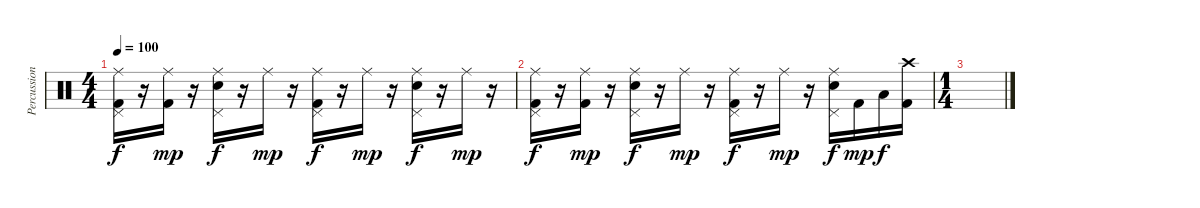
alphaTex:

\track ("Percussion" "Percussion") {instrument percussion}
\staff {score}
\articulation defaults
\ts (4 4)
\tempo 100
\clef neutral
\ks c
("Ride (middle)" "Pedal Hi-Hat (hit)" "Kick (hit) 2").16{dy f} r.16 ("Ride (middle)" "Kick (hit) 2").16{dy mp} r.16 ("Ride (middle)" "Electric Snare (hit)" "Pedal Hi-Hat (hit)").16{dy f} r.16 "Ride (middle)".16{dy mp} r.16 ("Ride (middle)" "Pedal Hi-Hat (hit)" "Kick (hit) 2").16{dy f} r.16 "Ride (middle)".16{dy mp} r.16 ("Ride (middle)" "Electric Snare (hit)" "Pedal Hi-Hat (hit)").16{dy f} r.16 "Ride (middle)".16{dy mp} r.16 |
("Ride (middle)" "Pedal Hi-Hat (hit)" "Kick (hit) 2").16{dy f} r.16 ("Ride (middle)" "Kick (hit) 2").16{dy mp} r.16 ("Ride (middle)" "Electric Snare (hit)" "Pedal Hi-Hat (hit)").16{dy f} r.16 "Ride (middle)".16{dy mp} r.16 ("Ride (middle)" "Pedal Hi-Hat (hit)" "Kick (hit) 2").16{dy f} r.16 "Ride (middle)".16{dy mp} r.16 ("Ride (middle)" "Electric Snare (hit)" "Pedal Hi-Hat (hit)").16{dy f} "Kick (hit) 2".16{dy mp} "Low Tom (hit)".16{dy f} ("Crash high (hit)" "Kick (hit) 2").16 |
\ts (1 4)
